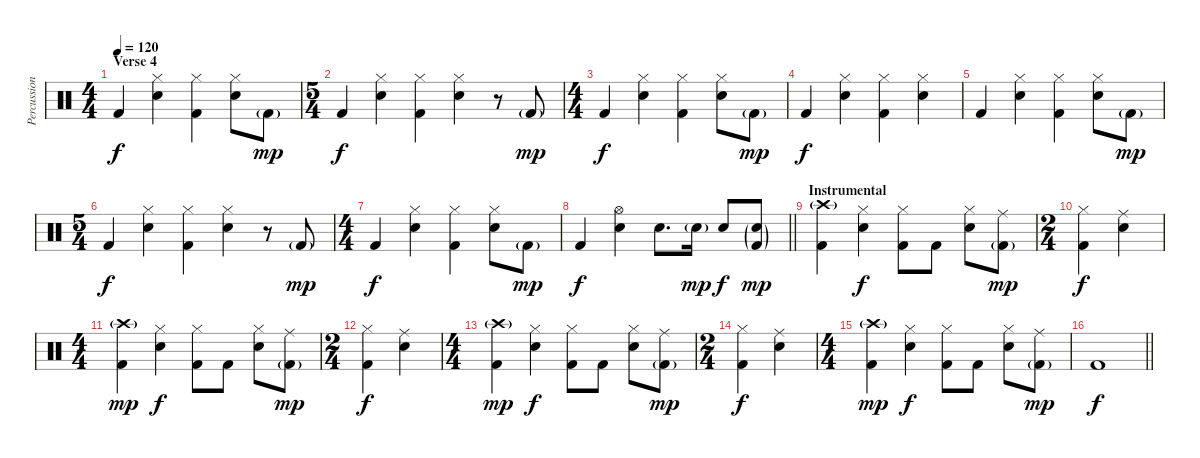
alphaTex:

\track ("Percussion" "Percussion") {instrument percussion}
\staff {score}
\articulation defaults
\ts (4 4)
\section ("" "Verse 4")
\tempo 120
\clef neutral
\ks c "Kick (hit) 2".4{dy f}
("Hi-Hat (closed)" "Snare (hit) 2").4 ("Hi-Hat (closed)" "Kick (hit) 2").4 ("Hi-Hat (closed)" "Snare (hit) 2").8 "Kick (hit) 2"{g}.8{dy mp} |
\ts (5 4)
"Kick (hit) 2".4{dy f} ("Hi-Hat (closed)" "Snare (hit) 2").4 ("Hi-Hat (closed)" "Kick (hit) 2").4 ("Hi-Hat (closed)" "Snare (hit) 2").4 r.8 "Kick (hit) 2"{g}.8{dy mp} |
\ts (4 4)
"Kick (hit) 2".4{dy f} ("Hi-Hat (closed)" "Snare (hit) 2").4 ("Hi-Hat (closed)" "Kick (hit) 2").4 ("Hi-Hat (closed)" "Snare (hit) 2").8 "Kick (hit) 2"{g}.8{dy mp} |
"Kick (hit) 2".4{dy f} ("Hi-Hat (closed)" "Snare (hit) 2").4 ("Hi-Hat (closed)" "Kick (hit) 2").4 ("Hi-Hat (closed)" "Snare (hit) 2").4 |
"Kick (hit) 2".4 ("Hi-Hat (closed)" "Snare (hit) 2").4 ("Hi-Hat (closed)" "Kick (hit) 2").4 ("Hi-Hat (closed)" "Snare (hit) 2").8 "Kick (hit) 2"{g}.8{dy mp} |
\ts (5 4)
"Kick (hit) 2".4{dy f} ("Hi-Hat (closed)" "Snare (hit) 2").4 ("Hi-Hat (closed)" "Kick (hit) 2").4 ("Hi-Hat (closed)" "Snare (hit) 2").4 r.8 "Kick (hit) 2"{g}.8{dy mp} |
\ts (4 4)
"Kick (hit) 2".4{dy f} ("Hi-Hat (closed)" "Snare (hit) 2").4 ("Hi-Hat (closed)" "Kick (hit) 2").4 ("Hi-Hat (closed)" "Snare (hit) 2").8 "Kick (hit) 2"{g}.8{dy mp} |
\barLineRight lightlight "Kick (hit) 2".4{dy f}
("Hi-Hat (open)" "Snare (hit) 2").4 "Snare (hit) 2".8{d} "Snare (hit) 2"{g}.16{dy mp} "Snare (hit) 2".8{dy f} ("Snare (hit) 2"{g} "Kick (hit) 2"{g}).8{dy mp} |
\section ("" "Instrumental")
("Crash high (hit)"{g} "Kick (hit) 2").4 ("Hi-Hat (closed)" "Snare (hit) 2").4{dy f} ("Hi-Hat (closed)" "Kick (hit) 2").8 "Kick (hit) 2".8 ("Hi-Hat (closed)" "Snare (hit) 2").8 ("Ride (middle)" "Kick (hit) 2"{g}).8{dy mp} |
\ts (2 4)
("Hi-Hat (closed)" "Kick (hit) 2").4{dy f} ("Ride (middle)" "Snare (hit) 2").4 |
\ts (4 4)
("Crash high (hit)"{g} "Kick (hit) 2").4{dy mp} ("Hi-Hat (closed)" "Snare (hit) 2").4{dy f} ("Hi-Hat (closed)" "Kick (hit) 2").8 "Kick (hit) 2".8 ("Hi-Hat (closed)" "Snare (hit) 2").8 ("Ride (middle)" "Kick (hit) 2"{g}).8{dy mp} |
\ts (2 4)
("Hi-Hat (closed)" "Kick (hit) 2").4{dy f} ("Ride (middle)" "Snare (hit) 2").4 |
\ts (4 4)
("Crash high (hit)"{g} "Kick (hit) 2").4{dy mp} ("Hi-Hat (closed)" "Snare (hit) 2").4{dy f} ("Hi-Hat (closed)" "Kick (hit) 2").8 "Kick (hit) 2".8 ("Hi-Hat (closed)" "Snare (hit) 2").8 ("Ride (middle)" "Kick (hit) 2"{g}).8{dy mp} |
\ts (2 4)
("Hi-Hat (closed)" "Kick (hit) 2").4{dy f} ("Ride (middle)" "Snare (hit) 2").4 |
\ts (4 4)
("Crash high (hit)"{g} "Kick (hit) 2").4{dy mp} ("Hi-Hat (closed)" "Snare (hit) 2").4{dy f} ("Hi-Hat (closed)" "Kick (hit) 2").8 "Kick (hit) 2".8 ("Hi-Hat (closed)" "Snare (hit) 2").8 ("Ride (middle)" "Kick (hit) 2"{g}).8{dy mp} |
\barLineRight lightlight "Kick (hit) 2".1{dy f}
